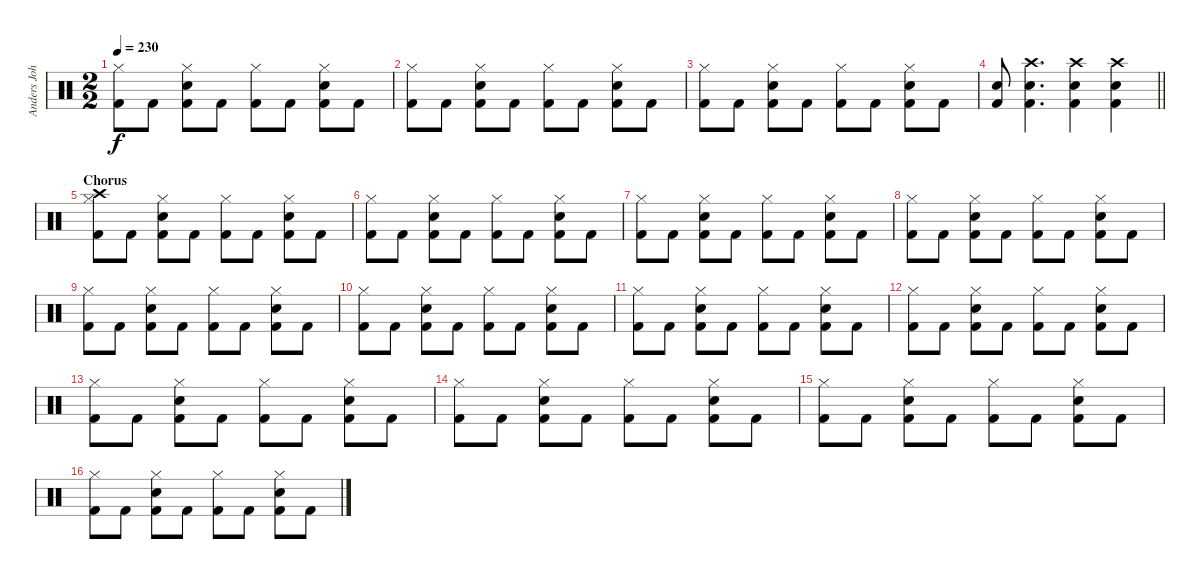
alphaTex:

\track ("Anders Johansson" "Anders Joh") {instrument percussion}
\staff {score}
\articulation defaults
\ts (2 2)
\tempo 230
\clef neutral
\ks c
("Hi-Hat (closed)" "Kick (hit) 2").8{dy f} "Kick (hit) 2".8 ("Electric Snare (hit)" "Hi-Hat (closed)" "Kick (hit) 2").8 "Kick (hit) 2".8 ("Hi-Hat (closed)" "Kick (hit) 2").8 "Kick (hit) 2".8 ("Electric Snare (hit)" "Hi-Hat (closed)" "Kick (hit) 2").8 "Kick (hit) 2".8 |
("Hi-Hat (closed)" "Kick (hit) 2").8 "Kick (hit) 2".8 ("Electric Snare (hit)" "Hi-Hat (closed)" "Kick (hit) 2").8 "Kick (hit) 2".8 ("Hi-Hat (closed)" "Kick (hit) 2").8 "Kick (hit) 2".8 ("Electric Snare (hit)" "Hi-Hat (closed)" "Kick (hit) 2").8 "Kick (hit) 2".8 |
("Hi-Hat (closed)" "Kick (hit) 2").8 "Kick (hit) 2".8 ("Electric Snare (hit)" "Hi-Hat (closed)" "Kick (hit) 2").8 "Kick (hit) 2".8 ("Hi-Hat (closed)" "Kick (hit) 2").8 "Kick (hit) 2".8 ("Electric Snare (hit)" "Hi-Hat (closed)" "Kick (hit) 2").8 "Kick (hit) 2".8 |
\barLineRight lightlight
("Electric Snare (hit)" "Kick (hit) 2").8 ("Crash high (hit)" "Electric Snare (hit)" "Kick (hit) 2").4{d} ("Crash high (hit)" "Electric Snare (hit)" "Kick (hit) 2").4 ("Crash high (hit)" "Electric Snare (hit)" "Kick (hit) 2").4 |
\section ("" "Chorus")
("Crash high (hit)" "Hi-Hat (closed)" "Kick (hit) 2").8 "Kick (hit) 2".8 ("Electric Snare (hit)" "Hi-Hat (closed)" "Kick (hit) 2").8 "Kick (hit) 2".8 ("Hi-Hat (closed)" "Kick (hit) 2").8 "Kick (hit) 2".8 ("Electric Snare (hit)" "Hi-Hat (closed)" "Kick (hit) 2").8 "Kick (hit) 2".8 |
("Hi-Hat (closed)" "Kick (hit) 2").8 "Kick (hit) 2".8 ("Electric Snare (hit)" "Hi-Hat (closed)" "Kick (hit) 2").8 "Kick (hit) 2".8 ("Hi-Hat (closed)" "Kick (hit) 2").8 "Kick (hit) 2".8 ("Electric Snare (hit)" "Hi-Hat (closed)" "Kick (hit) 2").8 "Kick (hit) 2".8 |
("Hi-Hat (closed)" "Kick (hit) 2").8 "Kick (hit) 2".8 ("Electric Snare (hit)" "Hi-Hat (closed)" "Kick (hit) 2").8 "Kick (hit) 2".8 ("Hi-Hat (closed)" "Kick (hit) 2").8 "Kick (hit) 2".8 ("Electric Snare (hit)" "Hi-Hat (closed)" "Kick (hit) 2").8 "Kick (hit) 2".8 |
("Hi-Hat (closed)" "Kick (hit) 2").8 "Kick (hit) 2".8 ("Electric Snare (hit)" "Hi-Hat (closed)" "Kick (hit) 2").8 "Kick (hit) 2".8 ("Hi-Hat (closed)" "Kick (hit) 2").8 "Kick (hit) 2".8 ("Electric Snare (hit)" "Hi-Hat (closed)" "Kick (hit) 2").8 "Kick (hit) 2".8 |
("Hi-Hat (closed)" "Kick (hit) 2").8 "Kick (hit) 2".8 ("Electric Snare (hit)" "Hi-Hat (closed)" "Kick (hit) 2").8 "Kick (hit) 2".8 ("Hi-Hat (closed)" "Kick (hit) 2").8 "Kick (hit) 2".8 ("Electric Snare (hit)" "Hi-Hat (closed)" "Kick (hit) 2").8 "Kick (hit) 2".8 |
("Hi-Hat (closed)" "Kick (hit) 2").8 "Kick (hit) 2".8 ("Electric Snare (hit)" "Hi-Hat (closed)" "Kick (hit) 2").8 "Kick (hit) 2".8 ("Hi-Hat (closed)" "Kick (hit) 2").8 "Kick (hit) 2".8 ("Electric Snare (hit)" "Hi-Hat (closed)" "Kick (hit) 2").8 "Kick (hit) 2".8 |
("Hi-Hat (closed)" "Kick (hit) 2").8 "Kick (hit) 2".8 ("Electric Snare (hit)" "Hi-Hat (closed)" "Kick (hit) 2").8 "Kick (hit) 2".8 ("Hi-Hat (closed)" "Kick (hit) 2").8 "Kick (hit) 2".8 ("Electric Snare (hit)" "Hi-Hat (closed)" "Kick (hit) 2").8 "Kick (hit) 2".8 |
("Hi-Hat (closed)" "Kick (hit) 2").8 "Kick (hit) 2".8 ("Electric Snare (hit)" "Hi-Hat (closed)" "Kick (hit) 2").8 "Kick (hit) 2".8 ("Hi-Hat (closed)" "Kick (hit) 2").8 "Kick (hit) 2".8 ("Electric Snare (hit)" "Hi-Hat (closed)" "Kick (hit) 2").8 "Kick (hit) 2".8 |
("Hi-Hat (closed)" "Kick (hit) 2").8 "Kick (hit) 2".8 ("Electric Snare (hit)" "Hi-Hat (closed)" "Kick (hit) 2").8 "Kick (hit) 2".8 ("Hi-Hat (closed)" "Kick (hit) 2").8 "Kick (hit) 2".8 ("Electric Snare (hit)" "Hi-Hat (closed)" "Kick (hit) 2").8 "Kick (hit) 2".8 |
("Hi-Hat (closed)" "Kick (hit) 2").8 "Kick (hit) 2".8 ("Electric Snare (hit)" "Hi-Hat (closed)" "Kick (hit) 2").8 "Kick (hit) 2".8 ("Hi-Hat (closed)" "Kick (hit) 2").8 "Kick (hit) 2".8 ("Electric Snare (hit)" "Hi-Hat (closed)" "Kick (hit) 2").8 "Kick (hit) 2".8 |
("Hi-Hat (closed)" "Kick (hit) 2").8 "Kick (hit) 2".8 ("Electric Snare (hit)" "Hi-Hat (closed)" "Kick (hit) 2").8 "Kick (hit) 2".8 ("Hi-Hat (closed)" "Kick (hit) 2").8 "Kick (hit) 2".8 ("Electric Snare (hit)" "Hi-Hat (closed)" "Kick (hit) 2").8 "Kick (hit) 2".8 |
("Hi-Hat (closed)" "Kick (hit) 2").8 "Kick (hit) 2".8 ("Electric Snare (hit)" "Hi-Hat (closed)" "Kick (hit) 2").8 "Kick (hit) 2".8 ("Hi-Hat (closed)" "Kick (hit) 2").8 "Kick (hit) 2".8 ("Electric Snare (hit)" "Hi-Hat (closed)" "Kick (hit) 2").8 "Kick (hit) 2".8
